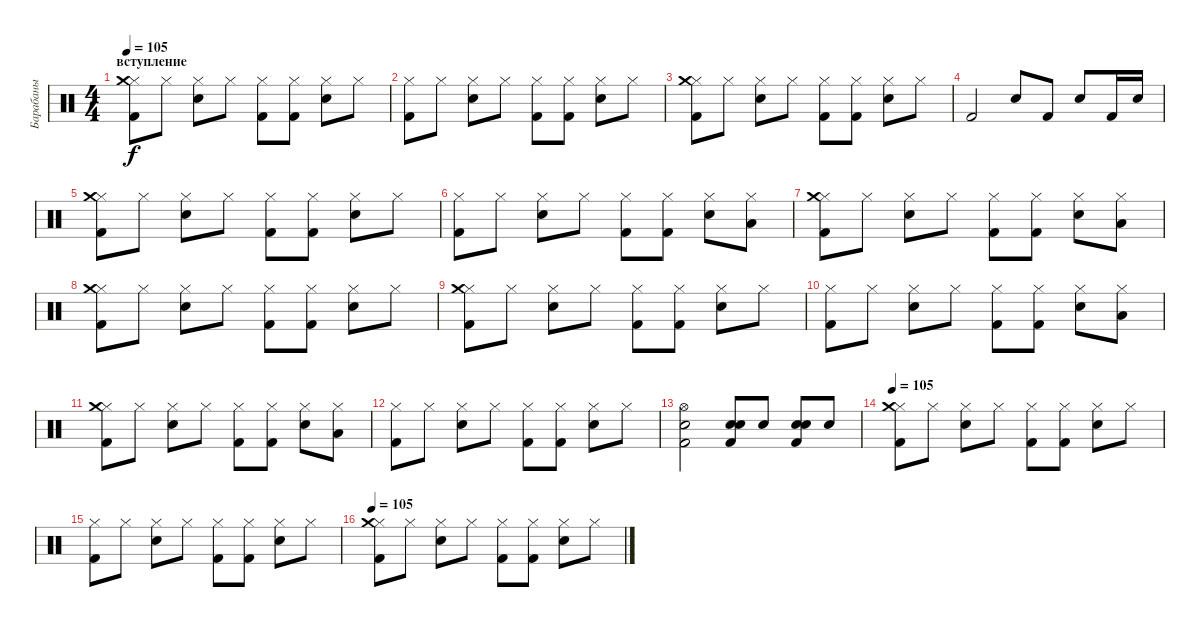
\track ("Барабаны" "Барабаны") {instrument percussion}
\staff {score}
\articulation defaults
\ts (4 4)
\section ("" "вступление")
\tempo 105
\clef neutral
\ks c
("Hi-Hat (closed)" "Kick (hit) 2" "Crash medium (hit)").8{dy f} "Hi-Hat (closed)".8 ("Hi-Hat (closed)" "Electric Snare (hit)").8 "Hi-Hat (closed)".8 ("Hi-Hat (closed)" "Kick (hit) 2").8 ("Hi-Hat (closed)" "Kick (hit) 2").8 ("Hi-Hat (closed)" "Electric Snare (hit)").8 "Hi-Hat (closed)".8 |
("Hi-Hat (closed)" "Kick (hit) 2").8 "Hi-Hat (closed)".8 ("Hi-Hat (closed)" "Electric Snare (hit)").8 "Hi-Hat (closed)".8 ("Hi-Hat (closed)" "Kick (hit) 2").8 ("Hi-Hat (closed)" "Kick (hit) 2").8 ("Hi-Hat (closed)" "Electric Snare (hit)").8 "Hi-Hat (closed)".8 |
("Hi-Hat (closed)" "Kick (hit) 2" "Crash medium (hit)").8 "Hi-Hat (closed)".8 ("Hi-Hat (closed)" "Electric Snare (hit)").8 "Hi-Hat (closed)".8 ("Hi-Hat (closed)" "Kick (hit) 2").8 ("Hi-Hat (closed)" "Kick (hit) 2").8 ("Hi-Hat (closed)" "Electric Snare (hit)").8 "Hi-Hat (closed)".8 |
"Kick (hit) 2".2 "Electric Snare (hit)".8 "Kick (hit) 2".8 "Electric Snare (hit)".8 "Kick (hit) 2".16 "Electric Snare (hit)".16 |
("Hi-Hat (closed)" "Kick (hit) 2" "Crash medium (hit)").8 "Hi-Hat (closed)".8 ("Hi-Hat (closed)" "Electric Snare (hit)").8 "Hi-Hat (closed)".8 ("Hi-Hat (closed)" "Kick (hit) 2").8 ("Hi-Hat (closed)" "Kick (hit) 2").8 ("Hi-Hat (closed)" "Electric Snare (hit)").8 "Hi-Hat (closed)".8 |
("Hi-Hat (closed)" "Kick (hit) 2").8 "Hi-Hat (closed)".8 ("Hi-Hat (closed)" "Electric Snare (hit)").8 "Hi-Hat (closed)".8 ("Hi-Hat (closed)" "Kick (hit) 2").8 ("Hi-Hat (closed)" "Kick (hit) 2").8 ("Hi-Hat (closed)" "Electric Snare (hit)").8 ("Hi-Hat (closed)" "Low Tom (hit)").8 |
("Hi-Hat (closed)" "Kick (hit) 2" "Crash medium (hit)").8 "Hi-Hat (closed)".8 ("Hi-Hat (closed)" "Electric Snare (hit)").8 "Hi-Hat (closed)".8 ("Hi-Hat (closed)" "Kick (hit) 2").8 ("Hi-Hat (closed)" "Kick (hit) 2").8 ("Hi-Hat (closed)" "Electric Snare (hit)").8 ("Hi-Hat (closed)" "Low Tom (hit)").8 |
("Hi-Hat (closed)" "Kick (hit) 2" "Crash medium (hit)").8 "Hi-Hat (closed)".8 ("Hi-Hat (closed)" "Electric Snare (hit)").8 "Hi-Hat (closed)".8 ("Hi-Hat (closed)" "Kick (hit) 2").8 ("Hi-Hat (closed)" "Kick (hit) 2").8 ("Hi-Hat (closed)" "Electric Snare (hit)").8 "Hi-Hat (closed)".8 |
("Hi-Hat (closed)" "Kick (hit) 2" "Crash medium (hit)").8 "Hi-Hat (closed)".8 ("Hi-Hat (closed)" "Electric Snare (hit)").8 "Hi-Hat (closed)".8 ("Hi-Hat (closed)" "Kick (hit) 2").8 ("Hi-Hat (closed)" "Kick (hit) 2").8 ("Hi-Hat (closed)" "Electric Snare (hit)").8 "Hi-Hat (closed)".8 |
("Hi-Hat (closed)" "Kick (hit) 2").8 "Hi-Hat (closed)".8 ("Hi-Hat (closed)" "Electric Snare (hit)").8 "Hi-Hat (closed)".8 ("Hi-Hat (closed)" "Kick (hit) 2").8 ("Hi-Hat (closed)" "Kick (hit) 2").8 ("Hi-Hat (closed)" "Electric Snare (hit)").8 ("Hi-Hat (closed)" "Low Tom (hit)").8 |
("Hi-Hat (closed)" "Kick (hit) 2" "Crash medium (hit)").8 "Hi-Hat (closed)".8 ("Hi-Hat (closed)" "Electric Snare (hit)").8 "Hi-Hat (closed)".8 ("Hi-Hat (closed)" "Kick (hit) 2").8 ("Hi-Hat (closed)" "Kick (hit) 2").8 ("Hi-Hat (closed)" "Electric Snare (hit)").8 ("Hi-Hat (closed)" "Low Tom (hit)").8 |
("Hi-Hat (closed)" "Kick (hit) 2").8 "Hi-Hat (closed)".8 ("Hi-Hat (closed)" "Electric Snare (hit)").8 "Hi-Hat (closed)".8 ("Hi-Hat (closed)" "Kick (hit) 2").8 ("Hi-Hat (closed)" "Kick (hit) 2").8 ("Hi-Hat (closed)" "Electric Snare (hit)").8 "Hi-Hat (closed)".8 |
("Kick (hit) 2" "Electric Snare (hit)" "Hi-Hat (open)").2 ("Electric Snare (hit)" "Kick (hit) 2" "Electric Snare (hit)").8 "Electric Snare (hit)".8 ("Electric Snare (hit)" "Kick (hit) 2" "Electric Snare (hit)").8 "Electric Snare (hit)".8 |
\tempo 105
("Hi-Hat (closed)" "Kick (hit) 2" "Crash medium (hit)").8 "Hi-Hat (closed)".8 ("Hi-Hat (closed)" "Electric Snare (hit)").8 "Hi-Hat (closed)".8 ("Hi-Hat (closed)" "Kick (hit) 2").8 ("Hi-Hat (closed)" "Kick (hit) 2").8 ("Hi-Hat (closed)" "Electric Snare (hit)").8 "Hi-Hat (closed)".8 |
("Hi-Hat (closed)" "Kick (hit) 2").8 "Hi-Hat (closed)".8 ("Hi-Hat (closed)" "Electric Snare (hit)").8 "Hi-Hat (closed)".8 ("Hi-Hat (closed)" "Kick (hit) 2").8 ("Hi-Hat (closed)" "Kick (hit) 2").8 ("Hi-Hat (closed)" "Electric Snare (hit)").8 "Hi-Hat (closed)".8 |
\tempo 105
("Hi-Hat (closed)" "Kick (hit) 2" "Crash medium (hit)").8 "Hi-Hat (closed)".8 ("Hi-Hat (closed)" "Electric Snare (hit)").8 "Hi-Hat (closed)".8 ("Hi-Hat (closed)" "Kick (hit) 2").8 ("Hi-Hat (closed)" "Kick (hit) 2").8 ("Hi-Hat (closed)" "Electric Snare (hit)").8 "Hi-Hat (closed)".8
